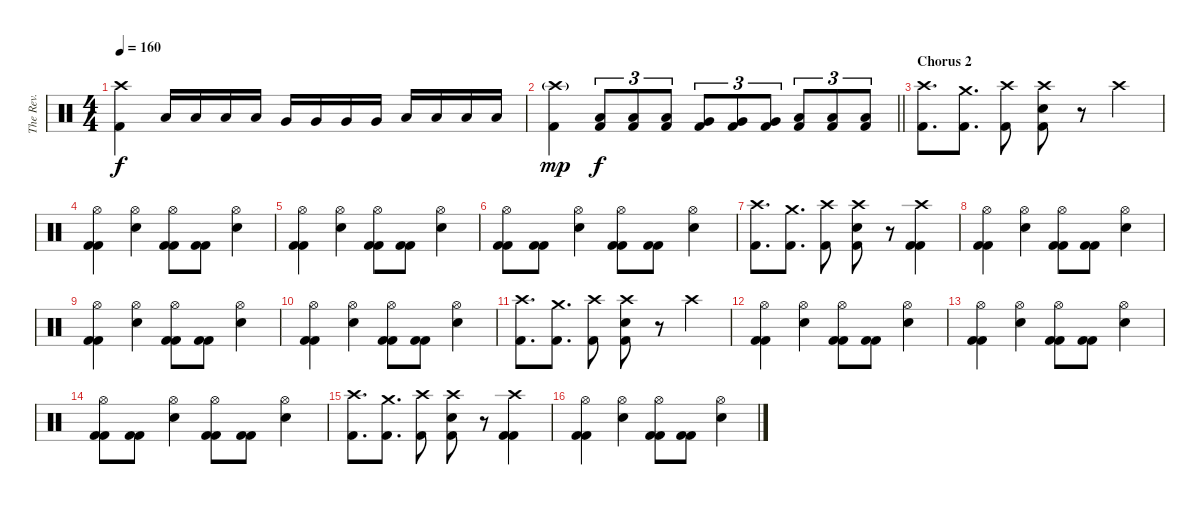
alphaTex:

\track ("The Rev." "The Rev.") {instrument percussion}
\staff {score}
\articulation defaults
\ts (4 4)
\tempo 160
\clef neutral
\ks c
("Crash high (hit)" "Kick (hit) 2").4{dy f} "Low Tom (hit)".16 "Low Tom (hit)".16 "Low Tom (hit)".16 "Low Tom (hit)".16 "Very Low Tom (hit)".16 "Very Low Tom (hit)".16 "Very Low Tom (hit)".16 "Very Low Tom (hit)".16 "Low Floor Tom (hit)".16 "Low Floor Tom (hit)".16 "Low Floor Tom (hit)".16 "Low Floor Tom (hit)".16 |
\barLineRight lightlight
("Crash high (hit)"{g} "Kick (hit) 2").4{dy mp} ("Low Tom (hit)" "Kick (hit) 2").8{tu (3 2) dy f} ("Low Tom (hit)" "Kick (hit) 2").8{tu (3 2)} ("Low Tom (hit)" "Kick (hit) 2").8{tu (3 2)} ("Very Low Tom (hit)" "Kick (hit) 2").8{tu (3 2)} ("Very Low Tom (hit)" "Kick (hit) 2").8{tu (3 2)} ("Very Low Tom (hit)" "Kick (hit) 2").8{tu (3 2)} ("Low Floor Tom (hit)" "Kick (hit) 2").8{tu (3 2)} ("Low Floor Tom (hit)" "Kick (hit) 2").8{tu (3 2)} ("Low Floor Tom (hit)" "Kick (hit) 2").8{tu (3 2)} |
\section ("" "Chorus 2")
("Crash high (hit)" "Kick (hit) 2").8{d} ("Crash medium (hit)" "Kick (hit) 2").8{d} ("Crash high (hit)" "Kick (hit) 2").8 ("Crash high (hit)" "Electric Snare (hit)" "Kick (hit) 2").8 r.8 "Crash high (hit)".4 |
("Hi-Hat (open)" "Kick (hit) 2" "Kick (hit) 2").4 ("Hi-Hat (open)" "Electric Snare (hit)").4 ("Hi-Hat (open)" "Kick (hit) 2" "Kick (hit) 2").8 ("Kick (hit) 2" "Kick (hit) 2").8 ("Hi-Hat (open)" "Electric Snare (hit)").4 |
("Hi-Hat (open)" "Kick (hit) 2" "Kick (hit) 2").4 ("Hi-Hat (open)" "Electric Snare (hit)").4 ("Hi-Hat (open)" "Kick (hit) 2" "Kick (hit) 2").8 ("Kick (hit) 2" "Kick (hit) 2").8 ("Hi-Hat (open)" "Electric Snare (hit)").4 |
("Hi-Hat (open)" "Kick (hit) 2" "Kick (hit) 2").8 ("Kick (hit) 2" "Kick (hit) 2").8 ("Hi-Hat (open)" "Electric Snare (hit)").4 ("Hi-Hat (open)" "Kick (hit) 2" "Kick (hit) 2").8 ("Kick (hit) 2" "Kick (hit) 2").8 ("Hi-Hat (open)" "Electric Snare (hit)").4 |
("Crash high (hit)" "Kick (hit) 2").8{d} ("Crash medium (hit)" "Kick (hit) 2").8{d} ("Crash high (hit)" "Kick (hit) 2").8 ("Crash high (hit)" "Electric Snare (hit)" "Kick (hit) 2").8 r.8 ("Crash high (hit)" "Kick (hit) 2" "Kick (hit) 2").4 |
("Hi-Hat (open)" "Kick (hit) 2" "Kick (hit) 2").4 ("Hi-Hat (open)" "Electric Snare (hit)").4 ("Hi-Hat (open)" "Kick (hit) 2" "Kick (hit) 2").8 ("Kick (hit) 2" "Kick (hit) 2").8 ("Hi-Hat (open)" "Electric Snare (hit)").4 |
("Hi-Hat (open)" "Kick (hit) 2" "Kick (hit) 2").4 ("Hi-Hat (open)" "Electric Snare (hit)").4 ("Hi-Hat (open)" "Kick (hit) 2" "Kick (hit) 2").8 ("Kick (hit) 2" "Kick (hit) 2").8 ("Hi-Hat (open)" "Electric Snare (hit)").4 |
("Hi-Hat (open)" "Kick (hit) 2" "Kick (hit) 2").4 ("Hi-Hat (open)" "Electric Snare (hit)").4 ("Hi-Hat (open)" "Kick (hit) 2" "Kick (hit) 2").8 ("Kick (hit) 2" "Kick (hit) 2").8 ("Hi-Hat (open)" "Electric Snare (hit)").4 |
("Crash high (hit)" "Kick (hit) 2").8{d} ("Crash medium (hit)" "Kick (hit) 2").8{d} ("Crash high (hit)" "Kick (hit) 2").8 ("Crash high (hit)" "Electric Snare (hit)" "Kick (hit) 2").8 r.8 "Crash high (hit)".4 |
("Hi-Hat (open)" "Kick (hit) 2" "Kick (hit) 2").4 ("Hi-Hat (open)" "Electric Snare (hit)").4 ("Hi-Hat (open)" "Kick (hit) 2" "Kick (hit) 2").8 ("Kick (hit) 2" "Kick (hit) 2").8 ("Hi-Hat (open)" "Electric Snare (hit)").4 |
("Hi-Hat (open)" "Kick (hit) 2" "Kick (hit) 2").4 ("Hi-Hat (open)" "Electric Snare (hit)").4 ("Hi-Hat (open)" "Kick (hit) 2" "Kick (hit) 2").8 ("Kick (hit) 2" "Kick (hit) 2").8 ("Hi-Hat (open)" "Electric Snare (hit)").4 |
("Hi-Hat (open)" "Kick (hit) 2" "Kick (hit) 2").8 ("Kick (hit) 2" "Kick (hit) 2").8 ("Hi-Hat (open)" "Electric Snare (hit)").4 ("Hi-Hat (open)" "Kick (hit) 2" "Kick (hit) 2").8 ("Kick (hit) 2" "Kick (hit) 2").8 ("Hi-Hat (open)" "Electric Snare (hit)").4 |
("Crash high (hit)" "Kick (hit) 2").8{d} ("Crash medium (hit)" "Kick (hit) 2").8{d} ("Crash high (hit)" "Kick (hit) 2").8 ("Crash high (hit)" "Electric Snare (hit)" "Kick (hit) 2").8 r.8 ("Crash high (hit)" "Kick (hit) 2" "Kick (hit) 2").4 |
("Hi-Hat (open)" "Kick (hit) 2" "Kick (hit) 2").4 ("Hi-Hat (open)" "Electric Snare (hit)").4 ("Hi-Hat (open)" "Kick (hit) 2" "Kick (hit) 2").8 ("Kick (hit) 2" "Kick (hit) 2").8 ("Hi-Hat (open)" "Electric Snare (hit)").4
